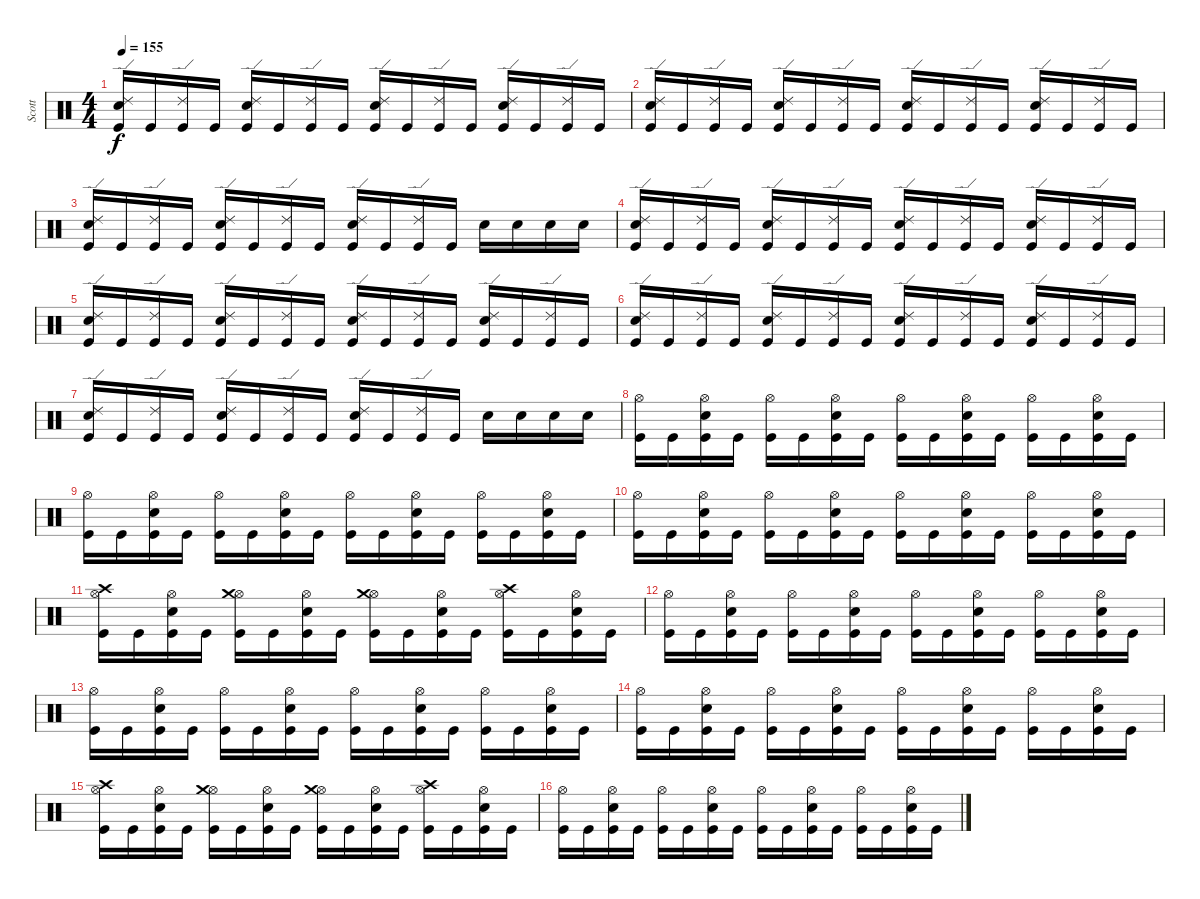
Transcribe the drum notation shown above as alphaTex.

\track ("Scott" "Scott") {instrument percussion}
\staff {score}
\articulation defaults
\ts (4 4)
\tempo 155
\clef neutral
\ks c
("Ride (edge) 2" "Snare (hit) 2" "Kick (hit)").16{dy f} "Kick (hit)".16 ("Ride (edge) 2" "Kick (hit)").16 "Kick (hit)".16 ("Ride (edge) 2" "Snare (hit) 2" "Kick (hit)").16 "Kick (hit)".16 ("Ride (edge) 2" "Kick (hit)").16 "Kick (hit)".16 ("Ride (edge) 2" "Snare (hit) 2" "Kick (hit)").16 "Kick (hit)".16 ("Ride (edge) 2" "Kick (hit)").16 "Kick (hit)".16 ("Ride (edge) 2" "Snare (hit) 2" "Kick (hit)").16 "Kick (hit)".16 ("Ride (edge) 2" "Kick (hit)").16 "Kick (hit)".16 |
("Ride (edge) 2" "Snare (hit) 2" "Kick (hit)").16 "Kick (hit)".16 ("Ride (edge) 2" "Kick (hit)").16 "Kick (hit)".16 ("Ride (edge) 2" "Snare (hit) 2" "Kick (hit)").16 "Kick (hit)".16 ("Ride (edge) 2" "Kick (hit)").16 "Kick (hit)".16 ("Ride (edge) 2" "Snare (hit) 2" "Kick (hit)").16 "Kick (hit)".16 ("Ride (edge) 2" "Kick (hit)").16 "Kick (hit)".16 ("Ride (edge) 2" "Snare (hit) 2" "Kick (hit)").16 "Kick (hit)".16 ("Ride (edge) 2" "Kick (hit)").16 "Kick (hit)".16 |
("Ride (edge) 2" "Snare (hit) 2" "Kick (hit)").16 "Kick (hit)".16 ("Ride (edge) 2" "Kick (hit)").16 "Kick (hit)".16 ("Ride (edge) 2" "Snare (hit) 2" "Kick (hit)").16 "Kick (hit)".16 ("Ride (edge) 2" "Kick (hit)").16 "Kick (hit)".16 ("Ride (edge) 2" "Snare (hit) 2" "Kick (hit)").16 "Kick (hit)".16 ("Ride (edge) 2" "Kick (hit)").16 "Kick (hit)".16 "Snare (hit) 2".16 "Snare (hit) 2".16 "Snare (hit) 2".16 "Snare (hit) 2".16 |
("Ride (edge) 2" "Snare (hit) 2" "Kick (hit)").16 "Kick (hit)".16 ("Ride (edge) 2" "Kick (hit)").16 "Kick (hit)".16 ("Ride (edge) 2" "Snare (hit) 2" "Kick (hit)").16 "Kick (hit)".16 ("Ride (edge) 2" "Kick (hit)").16 "Kick (hit)".16 ("Ride (edge) 2" "Snare (hit) 2" "Kick (hit)").16 "Kick (hit)".16 ("Ride (edge) 2" "Kick (hit)").16 "Kick (hit)".16 ("Ride (edge) 2" "Snare (hit) 2" "Kick (hit)").16 "Kick (hit)".16 ("Ride (edge) 2" "Kick (hit)").16 "Kick (hit)".16 |
("Ride (edge) 2" "Snare (hit) 2" "Kick (hit)").16 "Kick (hit)".16 ("Ride (edge) 2" "Kick (hit)").16 "Kick (hit)".16 ("Ride (edge) 2" "Snare (hit) 2" "Kick (hit)").16 "Kick (hit)".16 ("Ride (edge) 2" "Kick (hit)").16 "Kick (hit)".16 ("Ride (edge) 2" "Snare (hit) 2" "Kick (hit)").16 "Kick (hit)".16 ("Ride (edge) 2" "Kick (hit)").16 "Kick (hit)".16 ("Ride (edge) 2" "Snare (hit) 2" "Kick (hit)").16 "Kick (hit)".16 ("Ride (edge) 2" "Kick (hit)").16 "Kick (hit)".16 |
("Ride (edge) 2" "Snare (hit) 2" "Kick (hit)").16 "Kick (hit)".16 ("Ride (edge) 2" "Kick (hit)").16 "Kick (hit)".16 ("Ride (edge) 2" "Snare (hit) 2" "Kick (hit)").16 "Kick (hit)".16 ("Ride (edge) 2" "Kick (hit)").16 "Kick (hit)".16 ("Ride (edge) 2" "Snare (hit) 2" "Kick (hit)").16 "Kick (hit)".16 ("Ride (edge) 2" "Kick (hit)").16 "Kick (hit)".16 ("Ride (edge) 2" "Snare (hit) 2" "Kick (hit)").16 "Kick (hit)".16 ("Ride (edge) 2" "Kick (hit)").16 "Kick (hit)".16 |
("Ride (edge) 2" "Snare (hit) 2" "Kick (hit)").16 "Kick (hit)".16 ("Ride (edge) 2" "Kick (hit)").16 "Kick (hit)".16 ("Ride (edge) 2" "Snare (hit) 2" "Kick (hit)").16 "Kick (hit)".16 ("Ride (edge) 2" "Kick (hit)").16 "Kick (hit)".16 ("Ride (edge) 2" "Snare (hit) 2" "Kick (hit)").16 "Kick (hit)".16 ("Ride (edge) 2" "Kick (hit)").16 "Kick (hit)".16 "Snare (hit) 2".16 "Snare (hit) 2".16 "Snare (hit) 2".16 "Snare (hit) 2".16 |
("Hi-Hat (open)" "Kick (hit)").16 "Kick (hit)".16 ("Hi-Hat (open)" "Snare (hit) 2" "Kick (hit)").16 "Kick (hit)".16 ("Hi-Hat (open)" "Kick (hit)").16 "Kick (hit)".16 ("Hi-Hat (open)" "Snare (hit) 2" "Kick (hit)").16 "Kick (hit)".16 ("Hi-Hat (open)" "Kick (hit)").16 "Kick (hit)".16 ("Hi-Hat (open)" "Snare (hit) 2" "Kick (hit)").16 "Kick (hit)".16 ("Hi-Hat (open)" "Kick (hit)").16 "Kick (hit)".16 ("Hi-Hat (open)" "Snare (hit) 2" "Kick (hit)").16 "Kick (hit)".16 |
("Hi-Hat (open)" "Kick (hit)").16 "Kick (hit)".16 ("Hi-Hat (open)" "Snare (hit) 2" "Kick (hit)").16 "Kick (hit)".16 ("Hi-Hat (open)" "Kick (hit)").16 "Kick (hit)".16 ("Hi-Hat (open)" "Snare (hit) 2" "Kick (hit)").16 "Kick (hit)".16 ("Hi-Hat (open)" "Kick (hit)").16 "Kick (hit)".16 ("Hi-Hat (open)" "Snare (hit) 2" "Kick (hit)").16 "Kick (hit)".16 ("Hi-Hat (open)" "Kick (hit)").16 "Kick (hit)".16 ("Hi-Hat (open)" "Snare (hit) 2" "Kick (hit)").16 "Kick (hit)".16 |
("Hi-Hat (open)" "Kick (hit)").16 "Kick (hit)".16 ("Hi-Hat (open)" "Snare (hit) 2" "Kick (hit)").16 "Kick (hit)".16 ("Hi-Hat (open)" "Kick (hit)").16 "Kick (hit)".16 ("Hi-Hat (open)" "Snare (hit) 2" "Kick (hit)").16 "Kick (hit)".16 ("Hi-Hat (open)" "Kick (hit)").16 "Kick (hit)".16 ("Hi-Hat (open)" "Snare (hit) 2" "Kick (hit)").16 "Kick (hit)".16 ("Hi-Hat (open)" "Kick (hit)").16 "Kick (hit)".16 ("Hi-Hat (open)" "Snare (hit) 2" "Kick (hit)").16 "Kick (hit)".16 |
("Hi-Hat (open)" "Crash high (hit)" "Kick (hit)").16 "Kick (hit)".16 ("Hi-Hat (open)" "Snare (hit) 2" "Kick (hit)").16 "Kick (hit)".16 ("Hi-Hat (open)" "Crash medium (hit)" "Kick (hit)").16 "Kick (hit)".16 ("Hi-Hat (open)" "Snare (hit) 2" "Kick (hit)").16 "Kick (hit)".16 ("Hi-Hat (open)" "Crash medium (hit)" "Kick (hit)").16 "Kick (hit)".16 ("Hi-Hat (open)" "Snare (hit) 2" "Kick (hit)").16 "Kick (hit)".16 ("Hi-Hat (open)" "Crash high (hit)" "Kick (hit)").16 "Kick (hit)".16 ("Hi-Hat (open)" "Snare (hit) 2" "Kick (hit)").16 "Kick (hit)".16 |
("Hi-Hat (open)" "Kick (hit)").16 "Kick (hit)".16 ("Hi-Hat (open)" "Snare (hit) 2" "Kick (hit)").16 "Kick (hit)".16 ("Hi-Hat (open)" "Kick (hit)").16 "Kick (hit)".16 ("Hi-Hat (open)" "Snare (hit) 2" "Kick (hit)").16 "Kick (hit)".16 ("Hi-Hat (open)" "Kick (hit)").16 "Kick (hit)".16 ("Hi-Hat (open)" "Snare (hit) 2" "Kick (hit)").16 "Kick (hit)".16 ("Hi-Hat (open)" "Kick (hit)").16 "Kick (hit)".16 ("Hi-Hat (open)" "Snare (hit) 2" "Kick (hit)").16 "Kick (hit)".16 |
("Hi-Hat (open)" "Kick (hit)").16 "Kick (hit)".16 ("Hi-Hat (open)" "Snare (hit) 2" "Kick (hit)").16 "Kick (hit)".16 ("Hi-Hat (open)" "Kick (hit)").16 "Kick (hit)".16 ("Hi-Hat (open)" "Snare (hit) 2" "Kick (hit)").16 "Kick (hit)".16 ("Hi-Hat (open)" "Kick (hit)").16 "Kick (hit)".16 ("Hi-Hat (open)" "Snare (hit) 2" "Kick (hit)").16 "Kick (hit)".16 ("Hi-Hat (open)" "Kick (hit)").16 "Kick (hit)".16 ("Hi-Hat (open)" "Snare (hit) 2" "Kick (hit)").16 "Kick (hit)".16 |
("Hi-Hat (open)" "Kick (hit)").16 "Kick (hit)".16 ("Hi-Hat (open)" "Snare (hit) 2" "Kick (hit)").16 "Kick (hit)".16 ("Hi-Hat (open)" "Kick (hit)").16 "Kick (hit)".16 ("Hi-Hat (open)" "Snare (hit) 2" "Kick (hit)").16 "Kick (hit)".16 ("Hi-Hat (open)" "Kick (hit)").16 "Kick (hit)".16 ("Hi-Hat (open)" "Snare (hit) 2" "Kick (hit)").16 "Kick (hit)".16 ("Hi-Hat (open)" "Kick (hit)").16 "Kick (hit)".16 ("Hi-Hat (open)" "Snare (hit) 2" "Kick (hit)").16 "Kick (hit)".16 |
("Hi-Hat (open)" "Crash high (hit)" "Kick (hit)").16 "Kick (hit)".16 ("Hi-Hat (open)" "Snare (hit) 2" "Kick (hit)").16 "Kick (hit)".16 ("Hi-Hat (open)" "Crash medium (hit)" "Kick (hit)").16 "Kick (hit)".16 ("Hi-Hat (open)" "Snare (hit) 2" "Kick (hit)").16 "Kick (hit)".16 ("Hi-Hat (open)" "Crash medium (hit)" "Kick (hit)").16 "Kick (hit)".16 ("Hi-Hat (open)" "Snare (hit) 2" "Kick (hit)").16 "Kick (hit)".16 ("Hi-Hat (open)" "Crash high (hit)" "Kick (hit)").16 "Kick (hit)".16 ("Hi-Hat (open)" "Snare (hit) 2" "Kick (hit)").16 "Kick (hit)".16 |
("Hi-Hat (open)" "Kick (hit)").16 "Kick (hit)".16 ("Hi-Hat (open)" "Snare (hit) 2" "Kick (hit)").16 "Kick (hit)".16 ("Hi-Hat (open)" "Kick (hit)").16 "Kick (hit)".16 ("Hi-Hat (open)" "Snare (hit) 2" "Kick (hit)").16 "Kick (hit)".16 ("Hi-Hat (open)" "Kick (hit)").16 "Kick (hit)".16 ("Hi-Hat (open)" "Snare (hit) 2" "Kick (hit)").16 "Kick (hit)".16 ("Hi-Hat (open)" "Kick (hit)").16 "Kick (hit)".16 ("Hi-Hat (open)" "Snare (hit) 2" "Kick (hit)").16 "Kick (hit)".16
